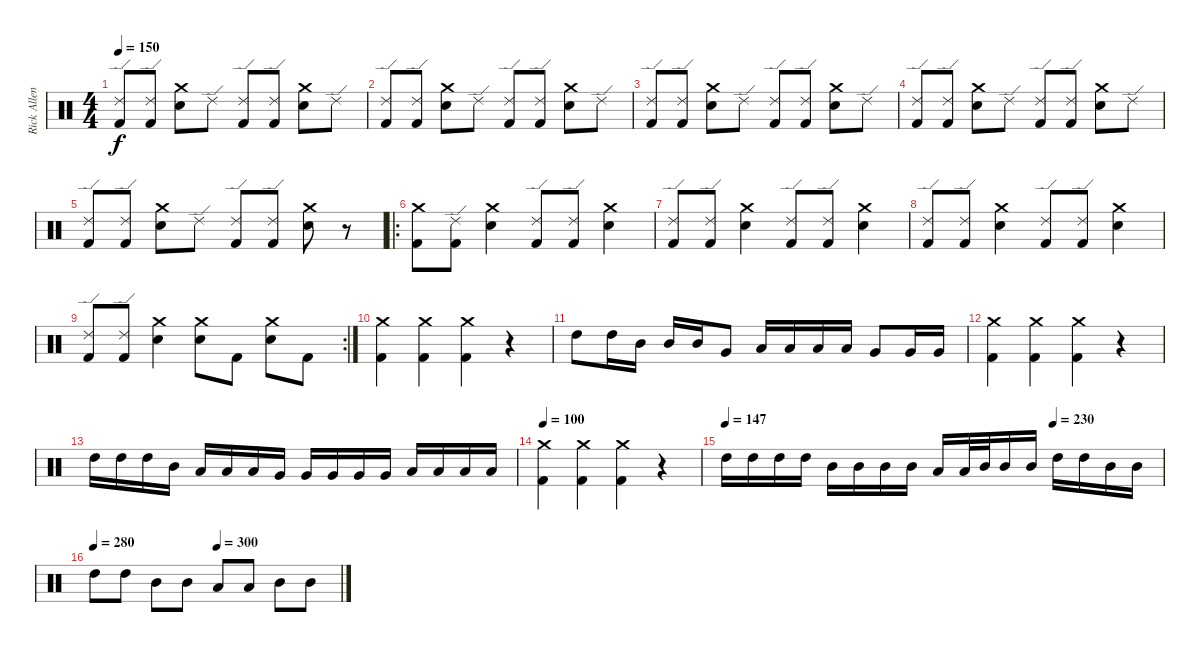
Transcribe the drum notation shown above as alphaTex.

\track ("Rick Allen" "Rick Allen") {instrument percussion}
\staff {score}
\articulation defaults
\ts (4 4)
\tempo 150
\clef neutral
\ks c
("Ride (edge) 2" "Kick (hit) 2").8{dy f} ("Ride (edge) 2" "Kick (hit) 2").8 ("Crash medium (hit)" "Snare (hit) 2").8 "Ride (edge) 2".8 ("Ride (edge) 2" "Kick (hit) 2").8 ("Ride (edge) 2" "Kick (hit) 2").8 ("Crash medium (hit)" "Snare (hit) 2").8 "Ride (edge) 2".8 |
("Ride (edge) 2" "Kick (hit) 2").8 ("Ride (edge) 2" "Kick (hit) 2").8 ("Crash medium (hit)" "Snare (hit) 2").8 "Ride (edge) 2".8 ("Ride (edge) 2" "Kick (hit) 2").8 ("Ride (edge) 2" "Kick (hit) 2").8 ("Crash medium (hit)" "Snare (hit) 2").8 "Ride (edge) 2".8 |
("Ride (edge) 2" "Kick (hit) 2").8 ("Ride (edge) 2" "Kick (hit) 2").8 ("Crash medium (hit)" "Snare (hit) 2").8 "Ride (edge) 2".8 ("Ride (edge) 2" "Kick (hit) 2").8 ("Ride (edge) 2" "Kick (hit) 2").8 ("Crash medium (hit)" "Snare (hit) 2").8 "Ride (edge) 2".8 |
("Ride (edge) 2" "Kick (hit) 2").8 ("Ride (edge) 2" "Kick (hit) 2").8 ("Crash medium (hit)" "Snare (hit) 2").8 "Ride (edge) 2".8 ("Ride (edge) 2" "Kick (hit) 2").8 ("Ride (edge) 2" "Kick (hit) 2").8 ("Crash medium (hit)" "Snare (hit) 2").8 "Ride (edge) 2".8 |
("Ride (edge) 2" "Kick (hit) 2").8 ("Ride (edge) 2" "Kick (hit) 2").8 ("Crash medium (hit)" "Snare (hit) 2").8 "Ride (edge) 2".8 ("Ride (edge) 2" "Kick (hit) 2").8 ("Ride (edge) 2" "Kick (hit) 2").8 ("Crash medium (hit)" "Snare (hit) 2").8 r.8 |
\ro
("Crash medium (hit)" "Kick (hit) 2").8 ("Ride (edge) 2" "Kick (hit) 2").8 ("Crash medium (hit)" "Snare (hit) 2").4 ("Ride (edge) 2" "Kick (hit) 2").8 ("Ride (edge) 2" "Kick (hit) 2").8 ("Crash medium (hit)" "Snare (hit) 2").4 |
("Ride (edge) 2" "Kick (hit) 2").8 ("Ride (edge) 2" "Kick (hit) 2").8 ("Crash medium (hit)" "Snare (hit) 2").4 ("Ride (edge) 2" "Kick (hit) 2").8 ("Ride (edge) 2" "Kick (hit) 2").8 ("Crash medium (hit)" "Snare (hit) 2").4 |
("Ride (edge) 2" "Kick (hit) 2").8 ("Ride (edge) 2" "Kick (hit) 2").8 ("Crash medium (hit)" "Snare (hit) 2").4 ("Ride (edge) 2" "Kick (hit) 2").8 ("Ride (edge) 2" "Kick (hit) 2").8 ("Crash medium (hit)" "Snare (hit) 2").4 |
\rc 2
("Ride (edge) 2" "Kick (hit) 2").8 ("Ride (edge) 2" "Kick (hit) 2").8 ("Crash medium (hit)" "Snare (hit) 2").4 ("Crash medium (hit)" "Snare (hit) 2").8 "Kick (hit) 2".8 ("Crash medium (hit)" "Snare (hit) 2").8 "Kick (hit) 2".8 |
("Crash medium (hit)" "Kick (hit) 2").4 ("Crash medium (hit)" "Kick (hit) 2").4 ("Crash medium (hit)" "Kick (hit) 2").4 r.4 |
"High Tom (hit)".8 "High Tom (hit)".16 "Mid Tom (hit)".16 "Mid Tom (hit)".16 "Mid Tom (hit)".16 "Very Low Tom (hit)".8 "Low Tom (hit)".16 "Low Tom (hit)".16 "Low Tom (hit)".16 "Low Tom (hit)".16 "Very Low Tom (hit)".8 "Very Low Tom (hit)".16 "Very Low Tom (hit)".16 |
("Crash medium (hit)" "Kick (hit) 2").4 ("Crash medium (hit)" "Kick (hit) 2").4 ("Crash medium (hit)" "Kick (hit) 2").4 r.4 |
"High Tom (hit)".16 "High Tom (hit)".16 "High Tom (hit)".16 "Mid Tom (hit)".16 "Low Tom (hit)".16 "Low Tom (hit)".16 "Low Tom (hit)".16 "Very Low Tom (hit)".16 "Very Low Tom (hit)".16 "Very Low Tom (hit)".16 "Very Low Tom (hit)".16 "Very Low Tom (hit)".16 "Low Tom (hit)".16 "Low Tom (hit)".16 "Low Tom (hit)".16 "Low Tom (hit)".16 |
\tempo 100
("Crash medium (hit)" "Kick (hit) 2").4 ("Crash medium (hit)" "Kick (hit) 2").4 ("Crash medium (hit)" "Kick (hit) 2").4 r.4 |
\tempo 147
\tempo (230 0.75)
"High Tom (hit)".16 "High Tom (hit)".16 "High Tom (hit)".16 "High Tom (hit)".16 "Mid Tom (hit)".16 "Mid Tom (hit)".16 "Mid Tom (hit)".16 "Mid Tom (hit)".16 "Low Tom (hit)".16 "Low Tom (hit)".32 "Mid Tom (hit)".32 "Mid Tom (hit)".16 "Mid Tom (hit)".16 "High Tom (hit)".16 "High Tom (hit)".16 "Mid Tom (hit)".16 "Mid Tom (hit)".16 |
\tempo 280
\tempo (300 0.5)
"High Tom (hit)".8 "High Tom (hit)".8 "Mid Tom (hit)".8 "Mid Tom (hit)".8 "Low Tom (hit)".8 "Low Tom (hit)".8 "Mid Tom (hit)".8 "Mid Tom (hit)".8
